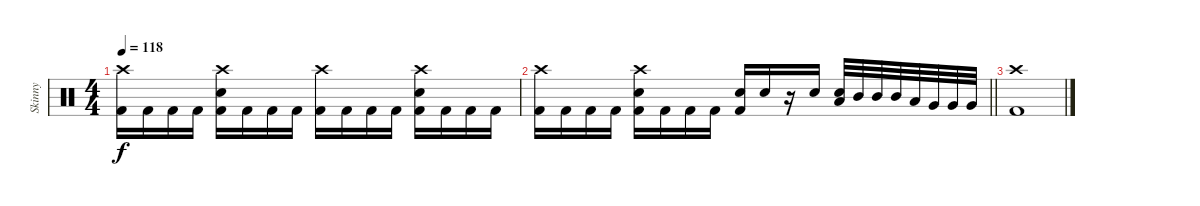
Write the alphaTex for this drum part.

\track ("Skinny" "Skinny") {instrument percussion}
\staff {score}
\articulation defaults
\ts (4 4)
\tempo 118
\clef neutral
\ks c
("Crash high (hit)" "Kick (hit) 2").16{dy f} "Kick (hit) 2".16 "Kick (hit) 2".16 "Kick (hit) 2".16 ("Crash high (hit)" "Electric Snare (hit)" "Kick (hit) 2").16 "Kick (hit) 2".16 "Kick (hit) 2".16 "Kick (hit) 2".16 ("Crash high (hit)" "Kick (hit) 2").16 "Kick (hit) 2".16 "Kick (hit) 2".16 "Kick (hit) 2".16 ("Crash high (hit)" "Electric Snare (hit)" "Kick (hit) 2").16 "Kick (hit) 2".16 "Kick (hit) 2".16 "Kick (hit) 2".16 |
\barLineRight lightlight
("Crash high (hit)" "Kick (hit) 2").16 "Kick (hit) 2".16 "Kick (hit) 2".16 "Kick (hit) 2".16 ("Crash high (hit)" "Electric Snare (hit)" "Kick (hit) 2").16 "Kick (hit) 2".16 "Kick (hit) 2".16 "Kick (hit) 2".16 ("Electric Snare (hit)" "Kick (hit) 2").16 "Electric Snare (hit)".16 r.16 "Electric Snare (hit)".16 ("Low Tom (hit)" "Electric Snare (hit)").32 "Mid Tom (hit)".32 "Mid Tom (hit)".32 "Mid Tom (hit)".32 "Low Tom (hit)".32 "Very Low Tom (hit)".32 "Very Low Tom (hit)".32 "Very Low Tom (hit)".32 |
("Crash high (hit)" "Kick (hit) 2").1
